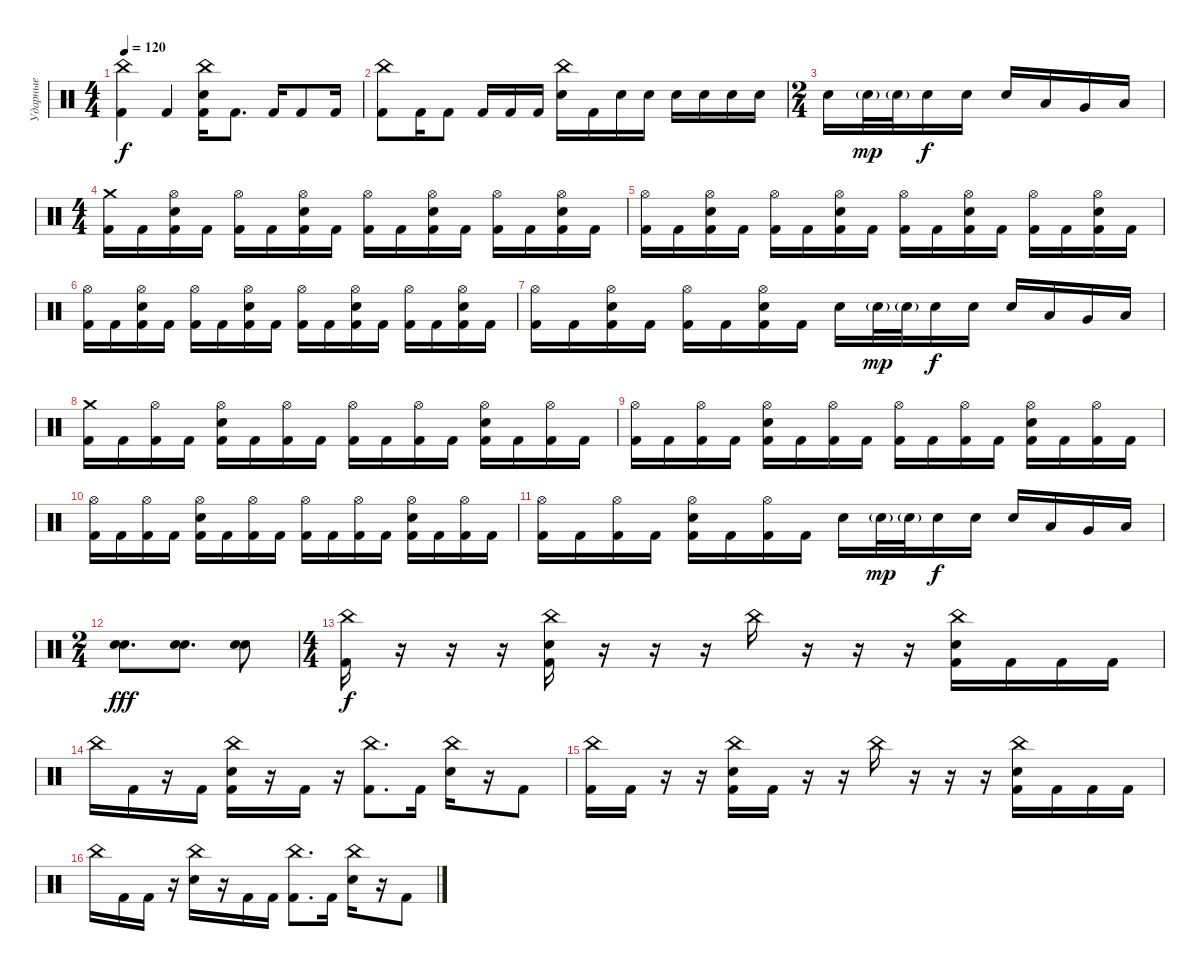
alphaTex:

\track ("Ударные" "Ударные") {instrument percussion}
\staff {score}
\articulation defaults
\ts (4 4)
\tempo 120
\clef neutral
\ks c
("China (hit)" "Kick (hit) 2").4{dy f} "Kick (hit) 2".4 ("China (hit)" "Electric Snare (hit)" "Kick (hit) 2").16 "Kick (hit) 2".8{d} "Kick (hit) 2".16 "Kick (hit) 2".8 "Kick (hit) 2".16 |
("China (hit)" "Kick (hit) 2").8 "Kick (hit) 2".16 "Kick (hit) 2".8 "Kick (hit) 2".16 "Kick (hit) 2".16 "Kick (hit) 2".16 ("China (hit)" "Electric Snare (hit)").16 "Kick (hit) 2".16 "Electric Snare (hit)".16 "Electric Snare (hit)".16 "Electric Snare (hit)".16 "Electric Snare (hit)".16 "Electric Snare (hit)".16 "Electric Snare (hit)".16 |
\ts (2 4)
"Electric Snare (hit)".16 "Snare (hit) 2"{g}.32{dy mp} "Snare (hit) 2"{g}.32 "Electric Snare (hit)".16{dy f} "Electric Snare (hit)".16 "Electric Snare (hit)".16 "Low Tom (hit)".16 "Very Low Tom (hit)".16 "Low Floor Tom (hit)".16 |
\ts (4 4)
("Crash medium (hit)" "Kick (hit) 2").16 "Kick (hit) 2".16 ("Hi-Hat (open)" "Electric Snare (hit)" "Kick (hit) 2").16 "Kick (hit) 2".16 ("Hi-Hat (open)" "Kick (hit) 2").16 "Kick (hit) 2".16 ("Hi-Hat (open)" "Electric Snare (hit)" "Kick (hit) 2").16 "Kick (hit) 2".16 ("Hi-Hat (open)" "Kick (hit) 2").16 "Kick (hit) 2".16 ("Hi-Hat (open)" "Electric Snare (hit)" "Kick (hit) 2").16 "Kick (hit) 2".16 ("Hi-Hat (open)" "Kick (hit) 2").16 "Kick (hit) 2".16 ("Hi-Hat (open)" "Electric Snare (hit)" "Kick (hit) 2").16 "Kick (hit) 2".16 |
("Hi-Hat (open)" "Kick (hit) 2").16 "Kick (hit) 2".16 ("Hi-Hat (open)" "Electric Snare (hit)" "Kick (hit) 2").16 "Kick (hit) 2".16 ("Hi-Hat (open)" "Kick (hit) 2").16 "Kick (hit) 2".16 ("Hi-Hat (open)" "Electric Snare (hit)" "Kick (hit) 2").16 "Kick (hit) 2".16 ("Hi-Hat (open)" "Kick (hit) 2").16 "Kick (hit) 2".16 ("Hi-Hat (open)" "Electric Snare (hit)" "Kick (hit) 2").16 "Kick (hit) 2".16 ("Hi-Hat (open)" "Kick (hit) 2").16 "Kick (hit) 2".16 ("Hi-Hat (open)" "Electric Snare (hit)" "Kick (hit) 2").16 "Kick (hit) 2".16 |
("Hi-Hat (open)" "Kick (hit) 2").16 "Kick (hit) 2".16 ("Hi-Hat (open)" "Electric Snare (hit)" "Kick (hit) 2").16 "Kick (hit) 2".16 ("Hi-Hat (open)" "Kick (hit) 2").16 "Kick (hit) 2".16 ("Hi-Hat (open)" "Electric Snare (hit)" "Kick (hit) 2").16 "Kick (hit) 2".16 ("Hi-Hat (open)" "Kick (hit) 2").16 "Kick (hit) 2".16 ("Hi-Hat (open)" "Electric Snare (hit)" "Kick (hit) 2").16 "Kick (hit) 2".16 ("Hi-Hat (open)" "Kick (hit) 2").16 "Kick (hit) 2".16 ("Hi-Hat (open)" "Electric Snare (hit)" "Kick (hit) 2").16 "Kick (hit) 2".16 |
("Hi-Hat (open)" "Kick (hit) 2").16 "Kick (hit) 2".16 ("Hi-Hat (open)" "Electric Snare (hit)" "Kick (hit) 2").16 "Kick (hit) 2".16 ("Hi-Hat (open)" "Kick (hit) 2").16 "Kick (hit) 2".16 ("Hi-Hat (open)" "Electric Snare (hit)" "Kick (hit) 2").16 "Kick (hit) 2".16 "Electric Snare (hit)".16 "Snare (hit) 2"{g}.32{dy mp} "Snare (hit) 2"{g}.32 "Electric Snare (hit)".16{dy f} "Electric Snare (hit)".16 "Electric Snare (hit)".16 "Low Tom (hit)".16 "Very Low Tom (hit)".16 "Low Floor Tom (hit)".16 |
("Crash medium (hit)" "Kick (hit) 2").16 "Kick (hit) 2".16 ("Hi-Hat (open)" "Kick (hit) 2").16 "Kick (hit) 2".16 ("Hi-Hat (open)" "Electric Snare (hit)" "Kick (hit) 2").16 "Kick (hit) 2".16 ("Hi-Hat (open)" "Kick (hit) 2").16 "Kick (hit) 2".16 ("Hi-Hat (open)" "Kick (hit) 2").16 "Kick (hit) 2".16 ("Hi-Hat (open)" "Kick (hit) 2").16 "Kick (hit) 2".16 ("Hi-Hat (open)" "Electric Snare (hit)" "Kick (hit) 2").16 "Kick (hit) 2".16 ("Hi-Hat (open)" "Kick (hit) 2").16 "Kick (hit) 2".16 |
("Hi-Hat (open)" "Kick (hit) 2").16 "Kick (hit) 2".16 ("Hi-Hat (open)" "Kick (hit) 2").16 "Kick (hit) 2".16 ("Hi-Hat (open)" "Electric Snare (hit)" "Kick (hit) 2").16 "Kick (hit) 2".16 ("Hi-Hat (open)" "Kick (hit) 2").16 "Kick (hit) 2".16 ("Hi-Hat (open)" "Kick (hit) 2").16 "Kick (hit) 2".16 ("Hi-Hat (open)" "Kick (hit) 2").16 "Kick (hit) 2".16 ("Hi-Hat (open)" "Electric Snare (hit)" "Kick (hit) 2").16 "Kick (hit) 2".16 ("Hi-Hat (open)" "Kick (hit) 2").16 "Kick (hit) 2".16 |
("Hi-Hat (open)" "Kick (hit) 2").16 "Kick (hit) 2".16 ("Hi-Hat (open)" "Kick (hit) 2").16 "Kick (hit) 2".16 ("Hi-Hat (open)" "Electric Snare (hit)" "Kick (hit) 2").16 "Kick (hit) 2".16 ("Hi-Hat (open)" "Kick (hit) 2").16 "Kick (hit) 2".16 ("Hi-Hat (open)" "Kick (hit) 2").16 "Kick (hit) 2".16 ("Hi-Hat (open)" "Kick (hit) 2").16 "Kick (hit) 2".16 ("Hi-Hat (open)" "Electric Snare (hit)" "Kick (hit) 2").16 "Kick (hit) 2".16 ("Hi-Hat (open)" "Kick (hit) 2").16 "Kick (hit) 2".16 |
("Hi-Hat (open)" "Kick (hit) 2").16 "Kick (hit) 2".16 ("Hi-Hat (open)" "Kick (hit) 2").16 "Kick (hit) 2".16 ("Hi-Hat (open)" "Electric Snare (hit)" "Kick (hit) 2").16 "Kick (hit) 2".16 ("Hi-Hat (open)" "Kick (hit) 2").16 "Kick (hit) 2".16 "Electric Snare (hit)".16 "Snare (hit) 2"{g}.32{dy mp} "Snare (hit) 2"{g}.32 "Electric Snare (hit)".16{dy f} "Electric Snare (hit)".16 "Electric Snare (hit)".16 "Low Tom (hit)".16 "Very Low Tom (hit)".16 "Low Floor Tom (hit)".16 |
\ts (2 4)
("Snare (hit) 2" "Electric Snare (hit)").8{d dy fff} ("Snare (hit) 2" "Electric Snare (hit)").8{d} ("Snare (hit) 2" "Electric Snare (hit)").8 |
\ts (4 4)
("China (hit)" "Kick (hit) 2").16{dy f} r.16 r.16 r.16 ("China (hit)" "Electric Snare (hit)" "Kick (hit) 2").16 r.16 r.16 r.16 "China (hit)".16 r.16 r.16 r.16 ("China (hit)" "Electric Snare (hit)" "Kick (hit) 2").16 "Kick (hit) 2".16 "Kick (hit) 2".16 "Kick (hit) 2".16 |
"China (hit)".16 "Kick (hit) 2".16 r.16 "Kick (hit) 2".16 ("China (hit)" "Electric Snare (hit)" "Kick (hit) 2").16 r.16 "Kick (hit) 2".16 r.16 ("China (hit)" "Kick (hit) 2").8{d} "Kick (hit) 2".16 ("China (hit)" "Electric Snare (hit)").16 r.16 "Kick (hit) 2".8 |
("China (hit)" "Kick (hit) 2").16 "Kick (hit) 2".16 r.16 r.16 ("China (hit)" "Electric Snare (hit)" "Kick (hit) 2").16 "Kick (hit) 2".16 r.16 r.16 "China (hit)".16 r.16 r.16 r.16 ("China (hit)" "Electric Snare (hit)" "Kick (hit) 2").16 "Kick (hit) 2".16 "Kick (hit) 2".16 "Kick (hit) 2".16 |
"China (hit)".16 "Kick (hit) 2".16 "Kick (hit) 2".16 r.16 ("China (hit)" "Electric Snare (hit)").16 r.16 "Kick (hit) 2".16 "Kick (hit) 2".16 ("China (hit)" "Kick (hit) 2").8{d} "Kick (hit) 2".16 ("China (hit)" "Electric Snare (hit)").16 r.16 "Kick (hit) 2".8
